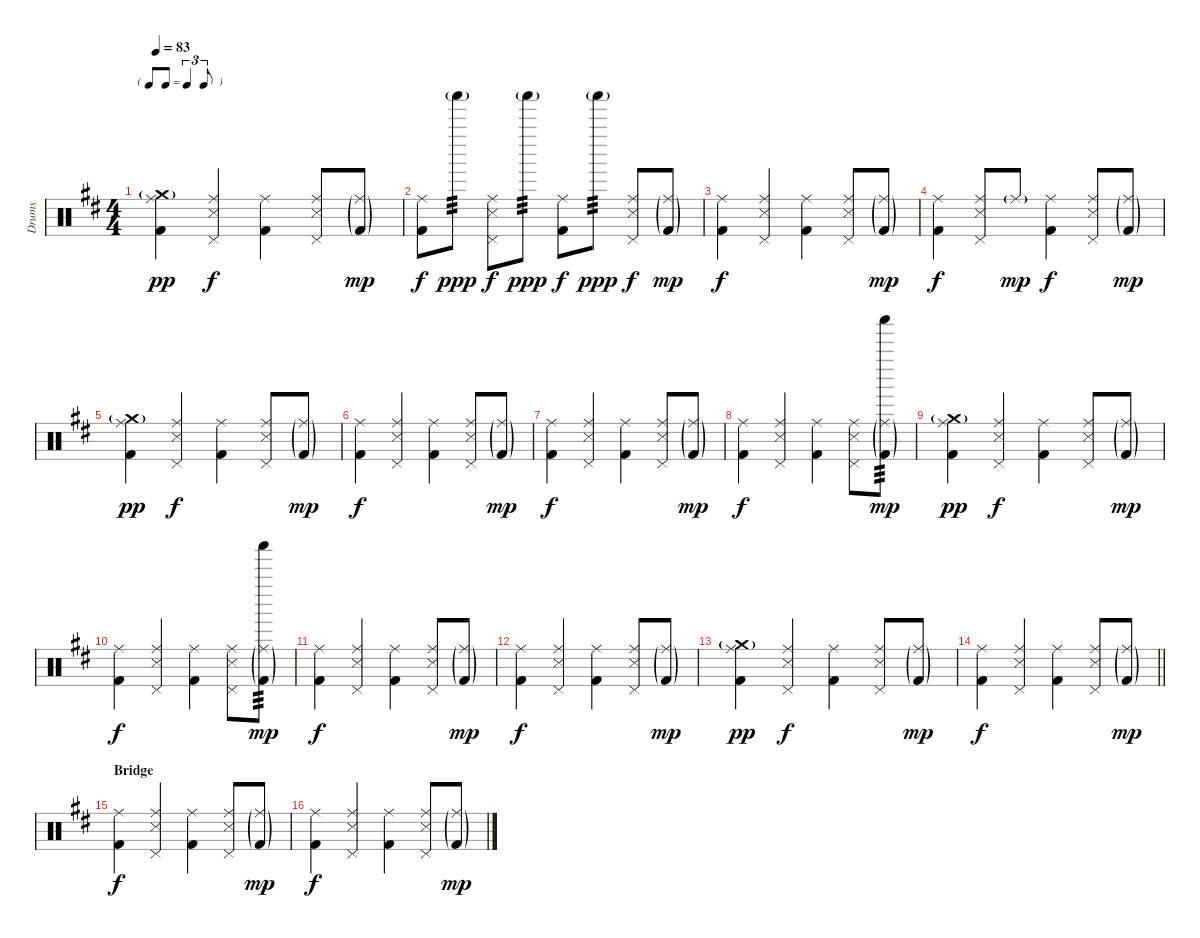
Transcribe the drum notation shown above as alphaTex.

\track ("Drums" "Drums") {instrument percussion}
\staff {score}
\articulation defaults
\ts (4 4)
\tf triplet8th
\tempo 83
\clef neutral
\ks d
("Ride (middle)" "Crash medium (hit)"{g} "Kick (hit) 2").4{dy pp} ("Ride (middle)" "Snare (side stick) 3" "Pedal Hi-Hat (hit)").4{dy f} ("Ride (middle)" "Kick (hit) 2").4 ("Ride (middle)" "Snare (side stick) 3" "Pedal Hi-Hat (hit)").8 ("Ride (middle)"{g} "Kick (hit) 2"{g}).8{dy mp} |
("Ride (middle)" "Kick (hit) 2").8{dy f} "Shaker (hit)"{g}.8{tp 3 dy ppp} ("Ride (middle)" "Snare (side stick) 3" "Pedal Hi-Hat (hit)").8{dy f} "Shaker (hit)"{g}.8{tp 3 dy ppp} ("Ride (middle)" "Kick (hit) 2").8{dy f} "Shaker (hit)"{g}.8{tp 3 dy ppp} ("Ride (middle)" "Snare (side stick) 3" "Pedal Hi-Hat (hit)").8{dy f} ("Ride (middle)"{g} "Kick (hit) 2"{g}).8{dy mp} |
("Ride (middle)" "Kick (hit) 2").4{dy f} ("Ride (middle)" "Snare (side stick) 3" "Pedal Hi-Hat (hit)").4 ("Ride (middle)" "Kick (hit) 2").4 ("Ride (middle)" "Snare (side stick) 3" "Pedal Hi-Hat (hit)").8 ("Ride (middle)"{g} "Kick (hit) 2"{g}).8{dy mp} |
("Ride (middle)" "Kick (hit) 2").4{dy f} ("Ride (middle)" "Snare (side stick) 3" "Pedal Hi-Hat (hit)").8 "Ride (middle)"{g}.8{dy mp} ("Ride (middle)" "Kick (hit) 2").4{dy f} ("Ride (middle)" "Snare (side stick) 3" "Pedal Hi-Hat (hit)").8 ("Ride (middle)"{g} "Kick (hit) 2"{g}).8{dy mp} |
("Ride (middle)" "Crash medium (hit)"{g} "Kick (hit) 2").4{dy pp} ("Ride (middle)" "Snare (side stick) 3" "Pedal Hi-Hat (hit)").4{dy f} ("Ride (middle)" "Kick (hit) 2").4 ("Ride (middle)" "Snare (side stick) 3" "Pedal Hi-Hat (hit)").8 ("Ride (middle)"{g} "Kick (hit) 2"{g}).8{dy mp} |
("Ride (middle)" "Kick (hit) 2").4{dy f} ("Ride (middle)" "Snare (side stick) 3" "Pedal Hi-Hat (hit)").4 ("Ride (middle)" "Kick (hit) 2").4 ("Ride (middle)" "Snare (side stick) 3" "Pedal Hi-Hat (hit)").8 ("Ride (middle)"{g} "Kick (hit) 2"{g}).8{dy mp} |
("Ride (middle)" "Kick (hit) 2").4{dy f} ("Ride (middle)" "Snare (side stick) 3" "Pedal Hi-Hat (hit)").4 ("Ride (middle)" "Kick (hit) 2").4 ("Ride (middle)" "Snare (side stick) 3" "Pedal Hi-Hat (hit)").8 ("Ride (middle)"{g} "Kick (hit) 2"{g}).8{dy mp} |
("Ride (middle)" "Kick (hit) 2").4{dy f} ("Ride (middle)" "Snare (side stick) 3" "Pedal Hi-Hat (hit)").4 ("Ride (middle)" "Kick (hit) 2").4 ("Ride (middle)" "Snare (side stick) 3" "Pedal Hi-Hat (hit)").8 ("Ride (middle)"{g} "Shaker (hit)" "Kick (hit) 2"{g}).8{tp 3 dy mp} |
("Ride (middle)" "Crash medium (hit)"{g} "Kick (hit) 2").4{dy pp} ("Ride (middle)" "Snare (side stick) 3" "Pedal Hi-Hat (hit)").4{dy f} ("Ride (middle)" "Kick (hit) 2").4 ("Ride (middle)" "Snare (side stick) 3" "Pedal Hi-Hat (hit)").8 ("Ride (middle)"{g} "Kick (hit) 2"{g}).8{dy mp} |
("Ride (middle)" "Kick (hit) 2").4{dy f} ("Ride (middle)" "Snare (side stick) 3" "Pedal Hi-Hat (hit)").4 ("Ride (middle)" "Kick (hit) 2").4 ("Ride (middle)" "Snare (side stick) 3" "Pedal Hi-Hat (hit)").8 ("Ride (middle)"{g} "Shaker (hit)" "Kick (hit) 2"{g}).8{tp 3 dy mp} |
("Ride (middle)" "Kick (hit) 2").4{dy f} ("Ride (middle)" "Snare (side stick) 3" "Pedal Hi-Hat (hit)").4 ("Ride (middle)" "Kick (hit) 2").4 ("Ride (middle)" "Snare (side stick) 3" "Pedal Hi-Hat (hit)").8 ("Ride (middle)"{g} "Kick (hit) 2"{g}).8{dy mp} |
("Ride (middle)" "Kick (hit) 2").4{dy f} ("Ride (middle)" "Snare (side stick) 3" "Pedal Hi-Hat (hit)").4 ("Ride (middle)" "Kick (hit) 2").4 ("Ride (middle)" "Snare (side stick) 3" "Pedal Hi-Hat (hit)").8 ("Ride (middle)"{g} "Kick (hit) 2"{g}).8{dy mp} |
("Ride (middle)" "Crash medium (hit)"{g} "Kick (hit) 2").4{dy pp} ("Ride (middle)" "Snare (side stick) 3" "Pedal Hi-Hat (hit)").4{dy f} ("Ride (middle)" "Kick (hit) 2").4 ("Ride (middle)" "Snare (side stick) 3" "Pedal Hi-Hat (hit)").8 ("Ride (middle)"{g} "Kick (hit) 2"{g}).8{dy mp} |
\barLineRight lightlight
("Ride (middle)" "Kick (hit) 2").4{dy f} ("Ride (middle)" "Snare (side stick) 3" "Pedal Hi-Hat (hit)").4 ("Ride (middle)" "Kick (hit) 2").4 ("Ride (middle)" "Snare (side stick) 3" "Pedal Hi-Hat (hit)").8 ("Ride (middle)"{g} "Kick (hit) 2"{g}).8{dy mp} |
\section ("" "Bridge")
("Ride (middle)" "Kick (hit) 2").4{dy f} ("Ride (middle)" "Snare (side stick) 3" "Pedal Hi-Hat (hit)").4 ("Ride (middle)" "Kick (hit) 2").4 ("Ride (middle)" "Snare (side stick) 3" "Pedal Hi-Hat (hit)").8 ("Ride (middle)"{g} "Kick (hit) 2"{g}).8{dy mp} |
("Ride (middle)" "Kick (hit) 2").4{dy f} ("Ride (middle)" "Snare (side stick) 3" "Pedal Hi-Hat (hit)").4 ("Ride (middle)" "Kick (hit) 2").4 ("Ride (middle)" "Snare (side stick) 3" "Pedal Hi-Hat (hit)").8 ("Ride (middle)"{g} "Kick (hit) 2"{g}).8{dy mp}
